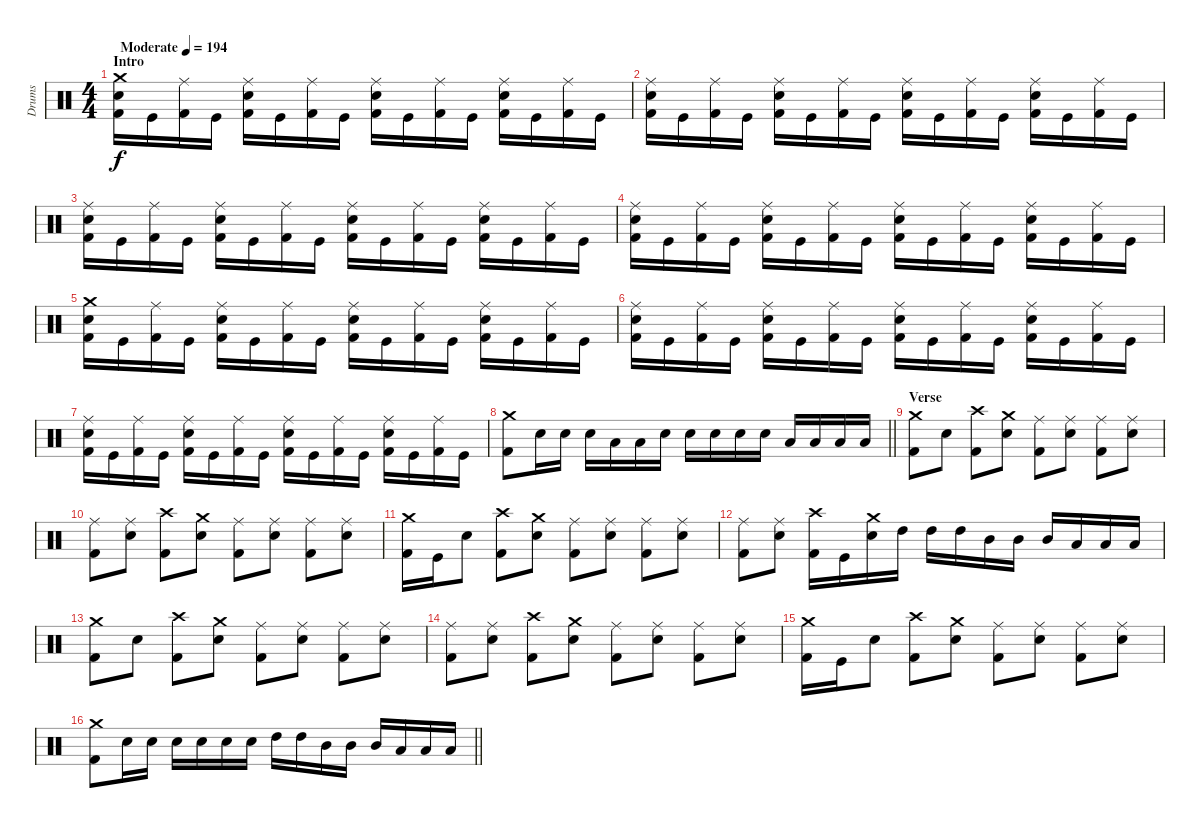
\track ("Drums" "Drums") {instrument percussion}
\staff {score}
\articulation defaults
\ts (4 4)
\section ("" "Intro")
\tempo (194 "Moderate")
\clef neutral
\ks c
("Crash medium (hit)" "Snare (hit) 2" "Kick (hit) 2").16{dy f} "Kick (hit)".16 ("Ride (middle)" "Kick (hit) 2").16 "Kick (hit)".16 ("Ride (middle)" "Snare (hit) 2" "Kick (hit) 2").16 "Kick (hit)".16 ("Ride (middle)" "Kick (hit) 2").16 "Kick (hit)".16 ("Ride (middle)" "Snare (hit) 2" "Kick (hit) 2").16 "Kick (hit)".16 ("Ride (middle)" "Kick (hit) 2").16 "Kick (hit)".16 ("Ride (middle)" "Snare (hit) 2" "Kick (hit) 2").16 "Kick (hit)".16 ("Ride (middle)" "Kick (hit) 2").16 "Kick (hit)".16 |
("Ride (middle)" "Snare (hit) 2" "Kick (hit) 2").16 "Kick (hit)".16 ("Ride (middle)" "Kick (hit) 2").16 "Kick (hit)".16 ("Ride (middle)" "Snare (hit) 2" "Kick (hit) 2").16 "Kick (hit)".16 ("Ride (middle)" "Kick (hit) 2").16 "Kick (hit)".16 ("Ride (middle)" "Snare (hit) 2" "Kick (hit) 2").16 "Kick (hit)".16 ("Ride (middle)" "Kick (hit) 2").16 "Kick (hit)".16 ("Ride (middle)" "Snare (hit) 2" "Kick (hit) 2").16 "Kick (hit)".16 ("Ride (middle)" "Kick (hit) 2").16 "Kick (hit)".16 |
("Ride (middle)" "Snare (hit) 2" "Kick (hit) 2").16 "Kick (hit)".16 ("Ride (middle)" "Kick (hit) 2").16 "Kick (hit)".16 ("Ride (middle)" "Snare (hit) 2" "Kick (hit) 2").16 "Kick (hit)".16 ("Ride (middle)" "Kick (hit) 2").16 "Kick (hit)".16 ("Ride (middle)" "Snare (hit) 2" "Kick (hit) 2").16 "Kick (hit)".16 ("Ride (middle)" "Kick (hit) 2").16 "Kick (hit)".16 ("Ride (middle)" "Snare (hit) 2" "Kick (hit) 2").16 "Kick (hit)".16 ("Ride (middle)" "Kick (hit) 2").16 "Kick (hit)".16 |
("Ride (middle)" "Snare (hit) 2" "Kick (hit) 2").16 "Kick (hit)".16 ("Ride (middle)" "Kick (hit) 2").16 "Kick (hit)".16 ("Ride (middle)" "Snare (hit) 2" "Kick (hit) 2").16 "Kick (hit)".16 ("Ride (middle)" "Kick (hit) 2").16 "Kick (hit)".16 ("Ride (middle)" "Snare (hit) 2" "Kick (hit) 2").16 "Kick (hit)".16 ("Ride (middle)" "Kick (hit) 2").16 "Kick (hit)".16 ("Ride (middle)" "Snare (hit) 2" "Kick (hit) 2").16 "Kick (hit)".16 ("Ride (middle)" "Kick (hit) 2").16 "Kick (hit)".16 |
("Crash medium (hit)" "Snare (hit) 2" "Kick (hit) 2").16 "Kick (hit)".16 ("Ride (middle)" "Kick (hit) 2").16 "Kick (hit)".16 ("Ride (middle)" "Snare (hit) 2" "Kick (hit) 2").16 "Kick (hit)".16 ("Ride (middle)" "Kick (hit) 2").16 "Kick (hit)".16 ("Ride (middle)" "Snare (hit) 2" "Kick (hit) 2").16 "Kick (hit)".16 ("Ride (middle)" "Kick (hit) 2").16 "Kick (hit)".16 ("Ride (middle)" "Snare (hit) 2" "Kick (hit) 2").16 "Kick (hit)".16 ("Ride (middle)" "Kick (hit) 2").16 "Kick (hit)".16 |
("Ride (middle)" "Snare (hit) 2" "Kick (hit) 2").16 "Kick (hit)".16 ("Ride (middle)" "Kick (hit) 2").16 "Kick (hit)".16 ("Ride (middle)" "Snare (hit) 2" "Kick (hit) 2").16 "Kick (hit)".16 ("Ride (middle)" "Kick (hit) 2").16 "Kick (hit)".16 ("Ride (middle)" "Snare (hit) 2" "Kick (hit) 2").16 "Kick (hit)".16 ("Ride (middle)" "Kick (hit) 2").16 "Kick (hit)".16 ("Ride (middle)" "Snare (hit) 2" "Kick (hit) 2").16 "Kick (hit)".16 ("Ride (middle)" "Kick (hit) 2").16 "Kick (hit)".16 |
("Ride (middle)" "Snare (hit) 2" "Kick (hit) 2").16 "Kick (hit)".16 ("Ride (middle)" "Kick (hit) 2").16 "Kick (hit)".16 ("Ride (middle)" "Snare (hit) 2" "Kick (hit) 2").16 "Kick (hit)".16 ("Ride (middle)" "Kick (hit) 2").16 "Kick (hit)".16 ("Ride (middle)" "Snare (hit) 2" "Kick (hit) 2").16 "Kick (hit)".16 ("Ride (middle)" "Kick (hit) 2").16 "Kick (hit)".16 ("Ride (middle)" "Snare (hit) 2" "Kick (hit) 2").16 "Kick (hit)".16 ("Ride (middle)" "Kick (hit) 2").16 "Kick (hit)".16 |
\barLineRight lightlight
("Crash medium (hit)" "Kick (hit) 2").8 "Snare (hit) 2".16 "Snare (hit) 2".16 "Snare (hit) 2".16 "Low Tom (hit)".16 "Low Tom (hit)".16 "Snare (hit) 2".16 "Snare (hit) 2".16 "Snare (hit) 2".16 "Snare (hit) 2".16 "Snare (hit) 2".16 "Low Tom (hit)".16 "Low Tom (hit)".16 "Low Tom (hit)".16 "Low Tom (hit)".16 |
\section ("" "Verse")
("Crash medium (hit)" "Kick (hit) 2").8 "Snare (hit) 2".8 ("Crash high (hit)" "Kick (hit) 2").8 ("Crash medium (hit)" "Snare (hit) 2").8 ("Ride (middle)" "Kick (hit) 2").8 ("Ride (middle)" "Snare (hit) 2").8 ("Ride (middle)" "Kick (hit) 2").8 ("Ride (middle)" "Snare (hit) 2").8 |
("Ride (middle)" "Kick (hit) 2").8 ("Ride (middle)" "Snare (hit) 2").8 ("Crash high (hit)" "Kick (hit) 2").8 ("Crash medium (hit)" "Snare (hit) 2").8 ("Ride (middle)" "Kick (hit) 2").8 ("Ride (middle)" "Snare (hit) 2").8 ("Ride (middle)" "Kick (hit) 2").8 ("Ride (middle)" "Snare (hit) 2").8 |
("Crash medium (hit)" "Kick (hit) 2").16 "Kick (hit)".16 "Snare (hit) 2".8 ("Crash high (hit)" "Kick (hit) 2").8 ("Crash medium (hit)" "Snare (hit) 2").8 ("Ride (middle)" "Kick (hit) 2").8 ("Ride (middle)" "Snare (hit) 2").8 ("Ride (middle)" "Kick (hit) 2").8 ("Ride (middle)" "Snare (hit) 2").8 |
("Ride (middle)" "Kick (hit) 2").8 ("Ride (middle)" "Snare (hit) 2").8 ("Crash high (hit)" "Kick (hit) 2").16 "Kick (hit)".16 ("Crash medium (hit)" "Snare (hit) 2").16 "High Tom (hit)".16 "High Tom (hit)".16 "High Tom (hit)".16 "Mid Tom (hit)".16 "Mid Tom (hit)".16 "Mid Tom (hit)".16 "Low Tom (hit)".16 "Low Tom (hit)".16 "Low Tom (hit)".16 |
("Crash medium (hit)" "Kick (hit) 2").8 "Snare (hit) 2".8 ("Crash high (hit)" "Kick (hit) 2").8 ("Crash medium (hit)" "Snare (hit) 2").8 ("Ride (middle)" "Kick (hit) 2").8 ("Ride (middle)" "Snare (hit) 2").8 ("Ride (middle)" "Kick (hit) 2").8 ("Ride (middle)" "Snare (hit) 2").8 |
("Ride (middle)" "Kick (hit) 2").8 ("Ride (middle)" "Snare (hit) 2").8 ("Crash high (hit)" "Kick (hit) 2").8 ("Crash medium (hit)" "Snare (hit) 2").8 ("Ride (middle)" "Kick (hit) 2").8 ("Ride (middle)" "Snare (hit) 2").8 ("Ride (middle)" "Kick (hit) 2").8 ("Ride (middle)" "Snare (hit) 2").8 |
("Crash medium (hit)" "Kick (hit) 2").16 "Kick (hit)".16 "Snare (hit) 2".8 ("Crash high (hit)" "Kick (hit) 2").8 ("Crash medium (hit)" "Snare (hit) 2").8 ("Ride (middle)" "Kick (hit) 2").8 ("Ride (middle)" "Snare (hit) 2").8 ("Ride (middle)" "Kick (hit) 2").8 ("Ride (middle)" "Snare (hit) 2").8 |
\barLineRight lightlight
("Crash medium (hit)" "Kick (hit) 2").8 "Snare (hit) 2".16 "Snare (hit) 2".16 "Snare (hit) 2".16 "Snare (hit) 2".16 "Snare (hit) 2".16 "Snare (hit) 2".16 "High Tom (hit)".16 "High Tom (hit)".16 "Mid Tom (hit)".16 "Mid Tom (hit)".16 "Mid Tom (hit)".16 "Low Tom (hit)".16 "Low Tom (hit)".16 "Low Tom (hit)".16
